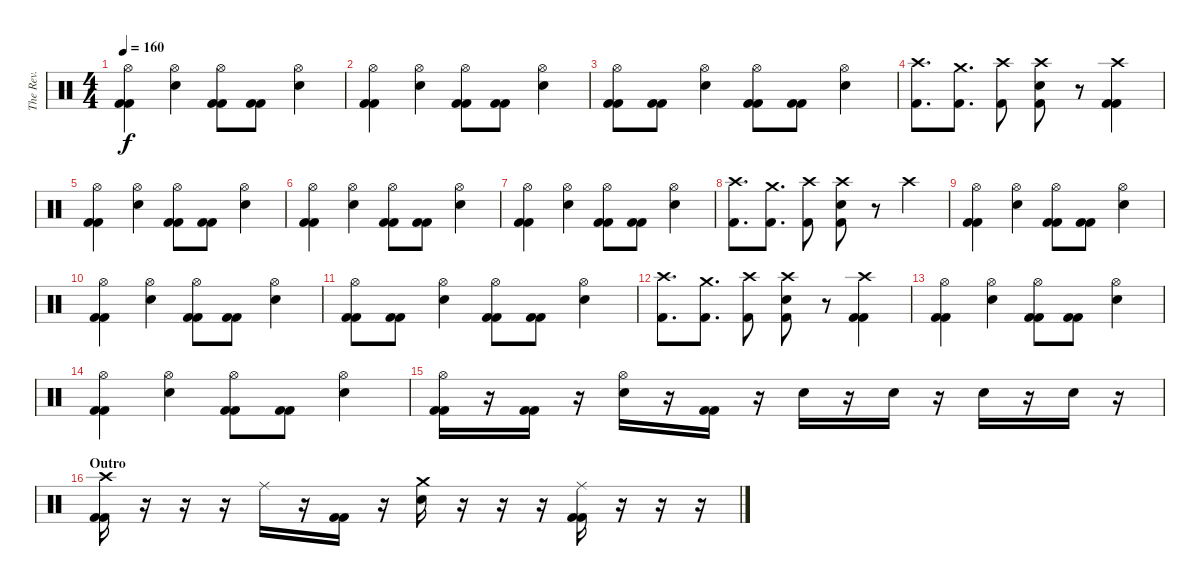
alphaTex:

\track ("The Rev." "The Rev.") {instrument percussion}
\staff {score}
\articulation defaults
\ts (4 4)
\tempo 160
\clef neutral
\ks c
("Hi-Hat (open)" "Kick (hit) 2" "Kick (hit) 2").4{dy f} ("Hi-Hat (open)" "Electric Snare (hit)").4 ("Hi-Hat (open)" "Kick (hit) 2" "Kick (hit) 2").8 ("Kick (hit) 2" "Kick (hit) 2").8 ("Hi-Hat (open)" "Electric Snare (hit)").4 |
("Hi-Hat (open)" "Kick (hit) 2" "Kick (hit) 2").4 ("Hi-Hat (open)" "Electric Snare (hit)").4 ("Hi-Hat (open)" "Kick (hit) 2" "Kick (hit) 2").8 ("Kick (hit) 2" "Kick (hit) 2").8 ("Hi-Hat (open)" "Electric Snare (hit)").4 |
("Hi-Hat (open)" "Kick (hit) 2" "Kick (hit) 2").8 ("Kick (hit) 2" "Kick (hit) 2").8 ("Hi-Hat (open)" "Electric Snare (hit)").4 ("Hi-Hat (open)" "Kick (hit) 2" "Kick (hit) 2").8 ("Kick (hit) 2" "Kick (hit) 2").8 ("Hi-Hat (open)" "Electric Snare (hit)").4 |
("Crash high (hit)" "Kick (hit) 2").8{d} ("Crash medium (hit)" "Kick (hit) 2").8{d} ("Crash high (hit)" "Kick (hit) 2").8 ("Crash high (hit)" "Electric Snare (hit)" "Kick (hit) 2").8 r.8 ("Crash high (hit)" "Kick (hit) 2" "Kick (hit) 2").4 |
("Hi-Hat (open)" "Kick (hit) 2" "Kick (hit) 2").4 ("Hi-Hat (open)" "Electric Snare (hit)").4 ("Hi-Hat (open)" "Kick (hit) 2" "Kick (hit) 2").8 ("Kick (hit) 2" "Kick (hit) 2").8 ("Hi-Hat (open)" "Electric Snare (hit)").4 |
("Hi-Hat (open)" "Kick (hit) 2" "Kick (hit) 2").4 ("Hi-Hat (open)" "Electric Snare (hit)").4 ("Hi-Hat (open)" "Kick (hit) 2" "Kick (hit) 2").8 ("Kick (hit) 2" "Kick (hit) 2").8 ("Hi-Hat (open)" "Electric Snare (hit)").4 |
("Hi-Hat (open)" "Kick (hit) 2" "Kick (hit) 2").4 ("Hi-Hat (open)" "Electric Snare (hit)").4 ("Hi-Hat (open)" "Kick (hit) 2" "Kick (hit) 2").8 ("Kick (hit) 2" "Kick (hit) 2").8 ("Hi-Hat (open)" "Electric Snare (hit)").4 |
("Crash high (hit)" "Kick (hit) 2").8{d} ("Crash medium (hit)" "Kick (hit) 2").8{d} ("Crash high (hit)" "Kick (hit) 2").8 ("Crash high (hit)" "Electric Snare (hit)" "Kick (hit) 2").8 r.8 "Crash high (hit)".4 |
("Hi-Hat (open)" "Kick (hit) 2" "Kick (hit) 2").4 ("Hi-Hat (open)" "Electric Snare (hit)").4 ("Hi-Hat (open)" "Kick (hit) 2" "Kick (hit) 2").8 ("Kick (hit) 2" "Kick (hit) 2").8 ("Hi-Hat (open)" "Electric Snare (hit)").4 |
("Hi-Hat (open)" "Kick (hit) 2" "Kick (hit) 2").4 ("Hi-Hat (open)" "Electric Snare (hit)").4 ("Hi-Hat (open)" "Kick (hit) 2" "Kick (hit) 2").8 ("Kick (hit) 2" "Kick (hit) 2").8 ("Hi-Hat (open)" "Electric Snare (hit)").4 |
("Hi-Hat (open)" "Kick (hit) 2" "Kick (hit) 2").8 ("Kick (hit) 2" "Kick (hit) 2").8 ("Hi-Hat (open)" "Electric Snare (hit)").4 ("Hi-Hat (open)" "Kick (hit) 2" "Kick (hit) 2").8 ("Kick (hit) 2" "Kick (hit) 2").8 ("Hi-Hat (open)" "Electric Snare (hit)").4 |
("Crash high (hit)" "Kick (hit) 2").8{d} ("Crash medium (hit)" "Kick (hit) 2").8{d} ("Crash high (hit)" "Kick (hit) 2").8 ("Crash high (hit)" "Electric Snare (hit)" "Kick (hit) 2").8 r.8 ("Crash high (hit)" "Kick (hit) 2" "Kick (hit) 2").4 |
("Hi-Hat (open)" "Kick (hit) 2" "Kick (hit) 2").4 ("Hi-Hat (open)" "Electric Snare (hit)").4 ("Hi-Hat (open)" "Kick (hit) 2" "Kick (hit) 2").8 ("Kick (hit) 2" "Kick (hit) 2").8 ("Hi-Hat (open)" "Electric Snare (hit)").4 |
("Hi-Hat (open)" "Kick (hit) 2" "Kick (hit) 2").4 ("Hi-Hat (open)" "Electric Snare (hit)").4 ("Hi-Hat (open)" "Kick (hit) 2" "Kick (hit) 2").8 ("Kick (hit) 2" "Kick (hit) 2").8 ("Hi-Hat (open)" "Electric Snare (hit)").4 |
("Hi-Hat (open)" "Kick (hit) 2" "Kick (hit) 2").16 r.16 ("Kick (hit) 2" "Kick (hit) 2").16 r.16 ("Hi-Hat (open)" "Electric Snare (hit)").16 r.16 ("Kick (hit) 2" "Kick (hit) 2").16 r.16 "Electric Snare (hit)".16 r.16 "Electric Snare (hit)".16 r.16 "Electric Snare (hit)".16 r.16 "Electric Snare (hit)".16 r.16 |
\section ("" "Outro")
("Crash high (hit)" "Kick (hit) 2" "Kick (hit) 2").16 r.16 r.16 r.16 "Ride (middle)".16 r.16 ("Kick (hit) 2" "Kick (hit) 2").16 r.16 ("Crash medium (hit)" "Electric Snare (hit)").16 r.16 r.16 r.16 ("Ride (middle)" "Kick (hit) 2" "Kick (hit) 2").16 r.16 r.16 r.16
